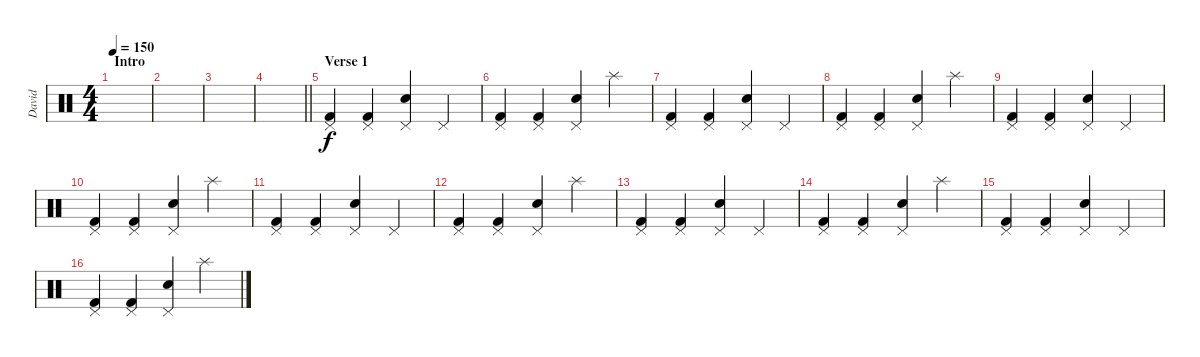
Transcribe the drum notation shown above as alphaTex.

\track ("David" "David") {instrument percussion}
\staff {score}
\articulation defaults
\ts (4 4)
\section ("" "Intro")
\tempo 150
\clef neutral
\ks c
|
|
|
\barLineRight lightlight
|
\section ("" "Verse 1")
("Pedal Hi-Hat (hit)" "Kick (hit) 2").4 ("Pedal Hi-Hat (hit)" "Kick (hit) 2").4 ("Pedal Hi-Hat (hit)" "Hand Clap (hit)").4 "Pedal Hi-Hat (hit)".4 |
("Pedal Hi-Hat (hit)" "Kick (hit) 2").4 ("Pedal Hi-Hat (hit)" "Kick (hit) 2").4 ("Pedal Hi-Hat (hit)" "Hand Clap (hit)").4 "Splash (hit)".4 |
("Pedal Hi-Hat (hit)" "Kick (hit) 2").4 ("Pedal Hi-Hat (hit)" "Kick (hit) 2").4 ("Pedal Hi-Hat (hit)" "Hand Clap (hit)").4 "Pedal Hi-Hat (hit)".4 |
("Pedal Hi-Hat (hit)" "Kick (hit) 2").4 ("Pedal Hi-Hat (hit)" "Kick (hit) 2").4 ("Pedal Hi-Hat (hit)" "Hand Clap (hit)").4 "Splash (hit)".4 |
("Pedal Hi-Hat (hit)" "Kick (hit) 2").4 ("Pedal Hi-Hat (hit)" "Kick (hit) 2").4 ("Pedal Hi-Hat (hit)" "Hand Clap (hit)").4 "Pedal Hi-Hat (hit)".4 |
("Pedal Hi-Hat (hit)" "Kick (hit) 2").4 ("Pedal Hi-Hat (hit)" "Kick (hit) 2").4 ("Pedal Hi-Hat (hit)" "Hand Clap (hit)").4 "Splash (hit)".4 |
("Pedal Hi-Hat (hit)" "Kick (hit) 2").4 ("Pedal Hi-Hat (hit)" "Kick (hit) 2").4 ("Pedal Hi-Hat (hit)" "Hand Clap (hit)").4 "Pedal Hi-Hat (hit)".4 |
("Pedal Hi-Hat (hit)" "Kick (hit) 2").4 ("Pedal Hi-Hat (hit)" "Kick (hit) 2").4 ("Pedal Hi-Hat (hit)" "Hand Clap (hit)").4 "Splash (hit)".4 |
("Pedal Hi-Hat (hit)" "Kick (hit) 2").4 ("Pedal Hi-Hat (hit)" "Kick (hit) 2").4 ("Pedal Hi-Hat (hit)" "Hand Clap (hit)").4 "Pedal Hi-Hat (hit)".4 |
("Pedal Hi-Hat (hit)" "Kick (hit) 2").4 ("Pedal Hi-Hat (hit)" "Kick (hit) 2").4 ("Pedal Hi-Hat (hit)" "Hand Clap (hit)").4 "Splash (hit)".4 |
("Pedal Hi-Hat (hit)" "Kick (hit) 2").4 ("Pedal Hi-Hat (hit)" "Kick (hit) 2").4 ("Pedal Hi-Hat (hit)" "Hand Clap (hit)").4 "Pedal Hi-Hat (hit)".4 |
("Pedal Hi-Hat (hit)" "Kick (hit) 2").4 ("Pedal Hi-Hat (hit)" "Kick (hit) 2").4 ("Pedal Hi-Hat (hit)" "Hand Clap (hit)").4 "Splash (hit)".4
